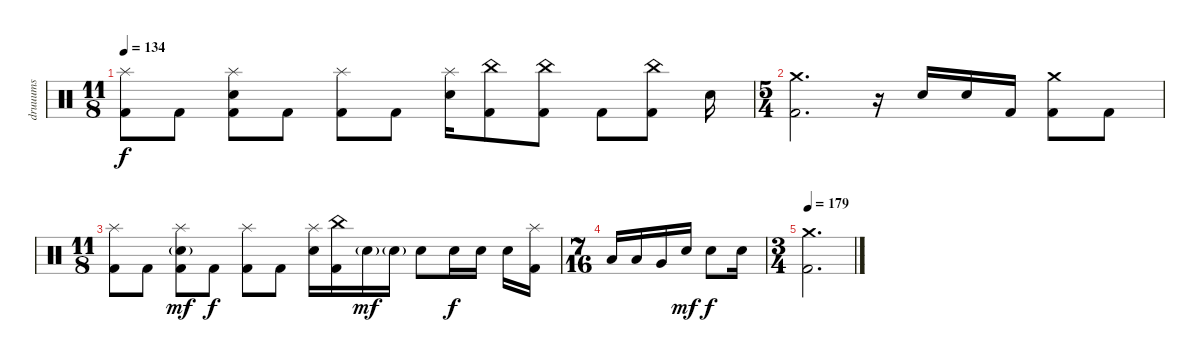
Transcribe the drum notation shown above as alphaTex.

\track ("druuums" "druuums") {instrument percussion}
\staff {score}
\articulation defaults
\ts (11 8)
\tempo 134
\clef neutral
\ks c
("Splash (hit)" "Kick (hit) 2").8{dy f} "Kick (hit) 2".8 ("Splash (hit)" "Electric Snare (hit)" "Kick (hit) 2").8 "Kick (hit) 2".8 ("Splash (hit)" "Kick (hit) 2").8 "Kick (hit) 2".8 ("Splash (hit)" "Electric Snare (hit)").16 ("China (hit)" "Kick (hit) 2").8 ("China (hit)" "Kick (hit) 2").8 "Kick (hit) 2".8 ("China (hit)" "Kick (hit) 2").8 "Electric Snare (hit)".16 |
\ts (5 4)
("Crash medium (hit)" "Kick (hit) 2").2{d} r.16 "Electric Snare (hit)".16 "Electric Snare (hit)".16 "Kick (hit) 2".16 ("Crash medium (hit)" "Kick (hit) 2").8 "Kick (hit) 2".8 |
\ts (11 8)
("Splash (hit)" "Kick (hit) 2").8 "Kick (hit) 2".8 ("Splash (hit)" "Electric Snare (hit)"{g} "Kick (hit) 2").8{dy mf} "Kick (hit) 2".8{dy f} ("Splash (hit)" "Kick (hit) 2").8 "Kick (hit) 2".8 ("Splash (hit)" "Electric Snare (hit)").16 ("China (hit)" "Kick (hit) 2").16 "Electric Snare (hit)"{g}.16{dy mf} "Electric Snare (hit)"{g}.16 "Electric Snare (hit)".8 "Electric Snare (hit)".16{dy f} "Electric Snare (hit)".16 "Electric Snare (hit)".16 ("Splash (hit)" "Kick (hit) 2").16 |
\ts (7 16)
"Low Tom (hit)".16 "Low Tom (hit)".16 "Very Low Tom (hit)".16 "Electric Snare (hit)".16{dy mf} "Electric Snare (hit)".8{dy f} "Electric Snare (hit)".16 |
\ts (3 4)
\tempo 179
("Crash medium (hit)" "Kick (hit) 2").2{d}
